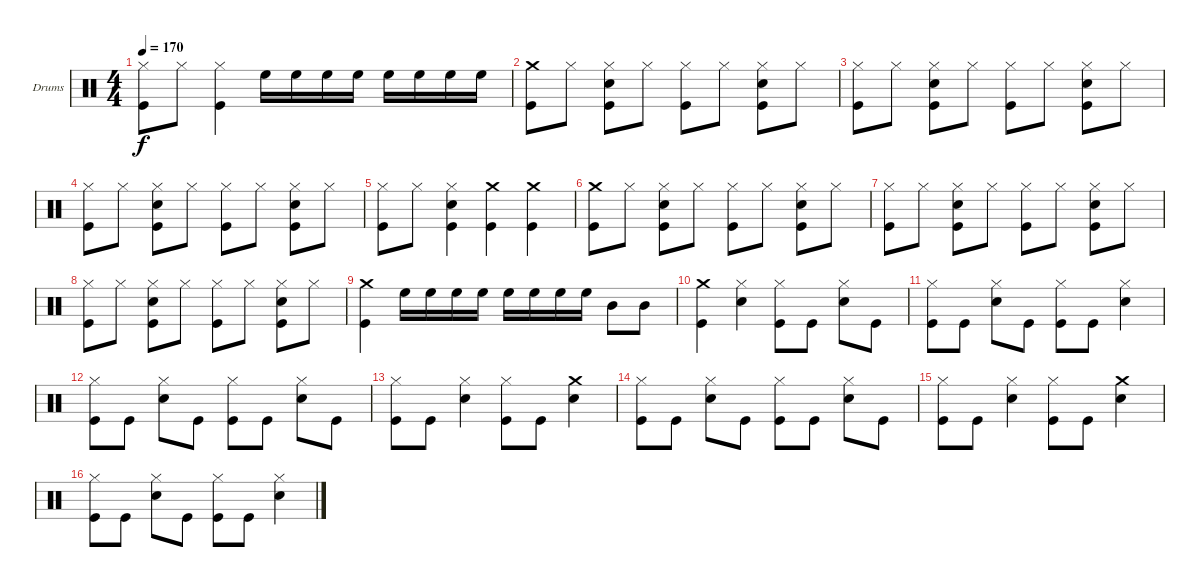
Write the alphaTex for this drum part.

\bracketExtendMode groupsimilarinstruments
\firstSystemTrackNameOrientation horizontal
\otherSystemsTrackNameOrientation horizontal
\track ("Drumkit" "Drums") {instrument percussion}
\staff {score}
\articulation defaults
\ts (4 4)
\tempo 170
\clef neutral
\ks c
("Hi-Hat (closed)" "Kick (hit)").8{dy f} "Hi-Hat (closed)".8 ("Hi-Hat (closed)" "Kick (hit)").4 "High Floor Tom (hit)".16 "High Floor Tom (hit)".16 "High Floor Tom (hit)".16 "High Floor Tom (hit)".16 "High Floor Tom (hit)".16 "High Floor Tom (hit)".16 "High Floor Tom (hit)".16 "High Floor Tom (hit)".16 |
("Crash medium (hit)" "Kick (hit)").8 "Hi-Hat (closed)".8 ("Hi-Hat (closed)" "Snare (hit) 2" "Kick (hit)").8 "Hi-Hat (closed)".8 ("Hi-Hat (closed)" "Kick (hit)").8 "Hi-Hat (closed)".8 ("Hi-Hat (closed)" "Snare (hit) 2" "Kick (hit)").8 "Hi-Hat (closed)".8 |
("Hi-Hat (closed)" "Kick (hit)").8 "Hi-Hat (closed)".8 ("Hi-Hat (closed)" "Snare (hit) 2" "Kick (hit)").8 "Hi-Hat (closed)".8 ("Hi-Hat (closed)" "Kick (hit)").8 "Hi-Hat (closed)".8 ("Hi-Hat (closed)" "Snare (hit) 2" "Kick (hit)").8 "Hi-Hat (closed)".8 |
("Hi-Hat (closed)" "Kick (hit)").8 "Hi-Hat (closed)".8 ("Hi-Hat (closed)" "Snare (hit) 2" "Kick (hit)").8 "Hi-Hat (closed)".8 ("Hi-Hat (closed)" "Kick (hit)").8 "Hi-Hat (closed)".8 ("Hi-Hat (closed)" "Snare (hit) 2" "Kick (hit)").8 "Hi-Hat (closed)".8 |
("Hi-Hat (closed)" "Kick (hit)").8 "Hi-Hat (closed)".8 ("Hi-Hat (closed)" "Snare (hit) 2" "Kick (hit)").4 ("Crash medium (hit)" "Kick (hit)").4 ("Crash medium (hit)" "Kick (hit)").4 |
("Crash medium (hit)" "Kick (hit)").8 "Hi-Hat (closed)".8 ("Hi-Hat (closed)" "Snare (hit) 2" "Kick (hit)").8 "Hi-Hat (closed)".8 ("Hi-Hat (closed)" "Kick (hit)").8 "Hi-Hat (closed)".8 ("Hi-Hat (closed)" "Snare (hit) 2" "Kick (hit)").8 "Hi-Hat (closed)".8 |
("Hi-Hat (closed)" "Kick (hit)").8 "Hi-Hat (closed)".8 ("Hi-Hat (closed)" "Snare (hit) 2" "Kick (hit)").8 "Hi-Hat (closed)".8 ("Hi-Hat (closed)" "Kick (hit)").8 "Hi-Hat (closed)".8 ("Hi-Hat (closed)" "Snare (hit) 2" "Kick (hit)").8 "Hi-Hat (closed)".8 |
("Hi-Hat (closed)" "Kick (hit)").8 "Hi-Hat (closed)".8 ("Hi-Hat (closed)" "Snare (hit) 2" "Kick (hit)").8 "Hi-Hat (closed)".8 ("Hi-Hat (closed)" "Kick (hit)").8 "Hi-Hat (closed)".8 ("Hi-Hat (closed)" "Snare (hit) 2" "Kick (hit)").8 "Hi-Hat (closed)".8 |
("Crash medium (hit)" "Kick (hit)").4 "High Floor Tom (hit)".16 "High Floor Tom (hit)".16 "High Floor Tom (hit)".16 "High Floor Tom (hit)".16 "High Floor Tom (hit)".16 "High Floor Tom (hit)".16 "High Floor Tom (hit)".16 "High Floor Tom (hit)".16 "Mid Tom (hit)".8 "Mid Tom (hit)".8 |
("Crash medium (hit)" "Kick (hit)").4 ("Hi-Hat (closed)" "Snare (hit) 2").4 ("Hi-Hat (closed)" "Kick (hit)").8 "Kick (hit)".8 ("Hi-Hat (closed)" "Snare (hit) 2").8 "Kick (hit)".8 |
("Hi-Hat (closed)" "Kick (hit)").8 "Kick (hit)".8 ("Hi-Hat (closed)" "Snare (hit) 2").8 "Kick (hit)".8 ("Hi-Hat (closed)" "Kick (hit)").8 "Kick (hit)".8 ("Hi-Hat (closed)" "Snare (hit) 2").4 |
("Hi-Hat (closed)" "Kick (hit)").8 "Kick (hit)".8 ("Hi-Hat (closed)" "Snare (hit) 2").8 "Kick (hit)".8 ("Hi-Hat (closed)" "Kick (hit)").8 "Kick (hit)".8 ("Hi-Hat (closed)" "Snare (hit) 2").8 "Kick (hit)".8 |
("Hi-Hat (closed)" "Kick (hit)").8 "Kick (hit)".8 ("Hi-Hat (closed)" "Snare (hit) 2").4 ("Hi-Hat (closed)" "Kick (hit)").8 "Kick (hit)".8 ("Crash medium (hit)" "Snare (hit) 2").4 |
("Hi-Hat (closed)" "Kick (hit)").8 "Kick (hit)".8 ("Hi-Hat (closed)" "Snare (hit) 2").8 "Kick (hit)".8 ("Hi-Hat (closed)" "Kick (hit)").8 "Kick (hit)".8 ("Hi-Hat (closed)" "Snare (hit) 2").8 "Kick (hit)".8 |
("Hi-Hat (closed)" "Kick (hit)").8 "Kick (hit)".8 ("Hi-Hat (closed)" "Snare (hit) 2").4 ("Hi-Hat (closed)" "Kick (hit)").8 "Kick (hit)".8 ("Crash medium (hit)" "Snare (hit) 2").4 |
("Hi-Hat (closed)" "Kick (hit)").8 "Kick (hit)".8 ("Hi-Hat (closed)" "Snare (hit) 2").8 "Kick (hit)".8 ("Hi-Hat (closed)" "Kick (hit)").8 "Kick (hit)".8 ("Hi-Hat (closed)" "Snare (hit) 2").4
